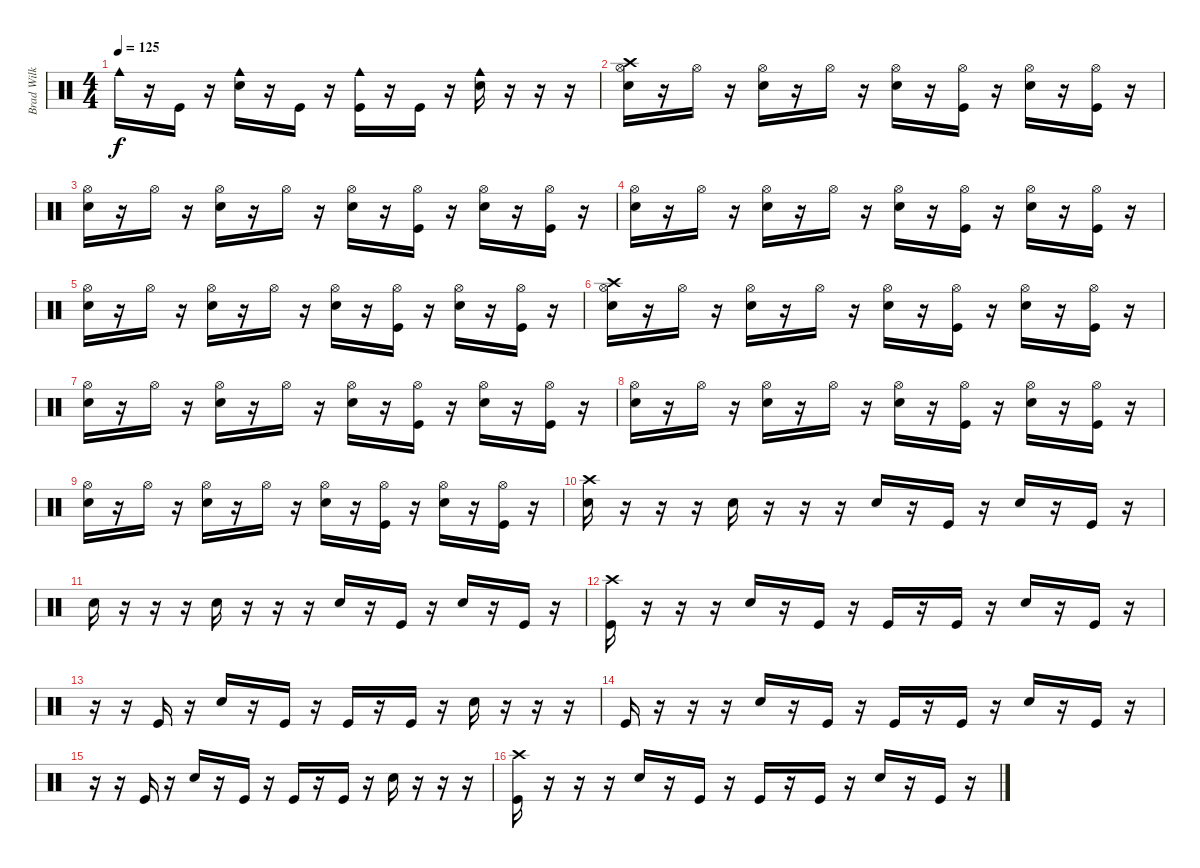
\track ("Brad Wilk - Drums" "Brad Wilk ") {instrument percussion}
\staff {score}
\articulation defaults
\ts (4 4)
\tempo 125
\clef neutral
\ks c "Cowbell medium (hit)".16{dy f}
r.16 "Kick (hit)".16 r.16 ("Snare (hit) 2" "Cowbell medium (hit)").16 r.16 "Kick (hit)".16 r.16 ("Cowbell medium (hit)" "Kick (hit)").16 r.16 "Kick (hit)".16 r.16 ("Snare (hit) 2" "Cowbell medium (hit)").16 r.16 r.16 r.16 |
("Crash high (hit)" "Snare (hit) 2" "Hi-Hat (open)").16 r.16 "Hi-Hat (open)".16 r.16 ("Snare (hit) 2" "Hi-Hat (open)").16 r.16 "Hi-Hat (open)".16 r.16 ("Snare (hit) 2" "Hi-Hat (open)").16 r.16 ("Hi-Hat (open)" "Kick (hit)").16 r.16 ("Snare (hit) 2" "Hi-Hat (open)").16 r.16 ("Hi-Hat (open)" "Kick (hit)").16 r.16 |
("Snare (hit) 2" "Hi-Hat (open)").16 r.16 "Hi-Hat (open)".16 r.16 ("Snare (hit) 2" "Hi-Hat (open)").16 r.16 "Hi-Hat (open)".16 r.16 ("Snare (hit) 2" "Hi-Hat (open)").16 r.16 ("Hi-Hat (open)" "Kick (hit)").16 r.16 ("Snare (hit) 2" "Hi-Hat (open)").16 r.16 ("Hi-Hat (open)" "Kick (hit)").16 r.16 |
("Snare (hit) 2" "Hi-Hat (open)").16 r.16 "Hi-Hat (open)".16 r.16 ("Snare (hit) 2" "Hi-Hat (open)").16 r.16 "Hi-Hat (open)".16 r.16 ("Snare (hit) 2" "Hi-Hat (open)").16 r.16 ("Hi-Hat (open)" "Kick (hit)").16 r.16 ("Snare (hit) 2" "Hi-Hat (open)").16 r.16 ("Hi-Hat (open)" "Kick (hit)").16 r.16 |
("Snare (hit) 2" "Hi-Hat (open)").16 r.16 "Hi-Hat (open)".16 r.16 ("Snare (hit) 2" "Hi-Hat (open)").16 r.16 "Hi-Hat (open)".16 r.16 ("Snare (hit) 2" "Hi-Hat (open)").16 r.16 ("Hi-Hat (open)" "Kick (hit)").16 r.16 ("Snare (hit) 2" "Hi-Hat (open)").16 r.16 ("Hi-Hat (open)" "Kick (hit)").16 r.16 |
("Crash high (hit)" "Snare (hit) 2" "Hi-Hat (open)").16 r.16 "Hi-Hat (open)".16 r.16 ("Snare (hit) 2" "Hi-Hat (open)").16 r.16 "Hi-Hat (open)".16 r.16 ("Snare (hit) 2" "Hi-Hat (open)").16 r.16 ("Hi-Hat (open)" "Kick (hit)").16 r.16 ("Snare (hit) 2" "Hi-Hat (open)").16 r.16 ("Hi-Hat (open)" "Kick (hit)").16 r.16 |
("Snare (hit) 2" "Hi-Hat (open)").16 r.16 "Hi-Hat (open)".16 r.16 ("Snare (hit) 2" "Hi-Hat (open)").16 r.16 "Hi-Hat (open)".16 r.16 ("Snare (hit) 2" "Hi-Hat (open)").16 r.16 ("Hi-Hat (open)" "Kick (hit)").16 r.16 ("Snare (hit) 2" "Hi-Hat (open)").16 r.16 ("Hi-Hat (open)" "Kick (hit)").16 r.16 |
("Snare (hit) 2" "Hi-Hat (open)").16 r.16 "Hi-Hat (open)".16 r.16 ("Snare (hit) 2" "Hi-Hat (open)").16 r.16 "Hi-Hat (open)".16 r.16 ("Snare (hit) 2" "Hi-Hat (open)").16 r.16 ("Hi-Hat (open)" "Kick (hit)").16 r.16 ("Snare (hit) 2" "Hi-Hat (open)").16 r.16 ("Hi-Hat (open)" "Kick (hit)").16 r.16 |
("Snare (hit) 2" "Hi-Hat (open)").16 r.16 "Hi-Hat (open)".16 r.16 ("Snare (hit) 2" "Hi-Hat (open)").16 r.16 "Hi-Hat (open)".16 r.16 ("Snare (hit) 2" "Hi-Hat (open)").16 r.16 ("Hi-Hat (open)" "Kick (hit)").16 r.16 ("Snare (hit) 2" "Hi-Hat (open)").16 r.16 ("Hi-Hat (open)" "Kick (hit)").16 r.16 |
("Crash high (hit)" "Snare (hit) 2").16 r.16 r.16 r.16 "Snare (hit) 2".16 r.16 r.16 r.16 "Snare (hit) 2".16 r.16 "Kick (hit)".16 r.16 "Snare (hit) 2".16 r.16 "Kick (hit)".16 r.16 |
"Snare (hit) 2".16 r.16 r.16 r.16 "Snare (hit) 2".16 r.16 r.16 r.16 "Snare (hit) 2".16 r.16 "Kick (hit)".16 r.16 "Snare (hit) 2".16 r.16 "Kick (hit)".16 r.16 |
("Crash high (hit)" "Kick (hit)").16 r.16 r.16 r.16 "Snare (hit) 2".16 r.16 "Kick (hit)".16 r.16 "Kick (hit)".16 r.16 "Kick (hit)".16 r.16 "Snare (hit) 2".16 r.16 "Kick (hit)".16 r.16 |
r.16 r.16 "Kick (hit)".16 r.16 "Snare (hit) 2".16 r.16 "Kick (hit)".16 r.16 "Kick (hit)".16 r.16 "Kick (hit)".16 r.16 "Snare (hit) 2".16 r.16 r.16 r.16 |
"Kick (hit)".16 r.16 r.16 r.16 "Snare (hit) 2".16 r.16 "Kick (hit)".16 r.16 "Kick (hit)".16 r.16 "Kick (hit)".16 r.16 "Snare (hit) 2".16 r.16 "Kick (hit)".16 r.16 |
r.16 r.16 "Kick (hit)".16 r.16 "Snare (hit) 2".16 r.16 "Kick (hit)".16 r.16 "Kick (hit)".16 r.16 "Kick (hit)".16 r.16 "Snare (hit) 2".16 r.16 r.16 r.16 |
("Crash high (hit)" "Kick (hit)").16 r.16 r.16 r.16 "Snare (hit) 2".16 r.16 "Kick (hit)".16 r.16 "Kick (hit)".16 r.16 "Kick (hit)".16 r.16 "Snare (hit) 2".16 r.16 "Kick (hit)".16 r.16
